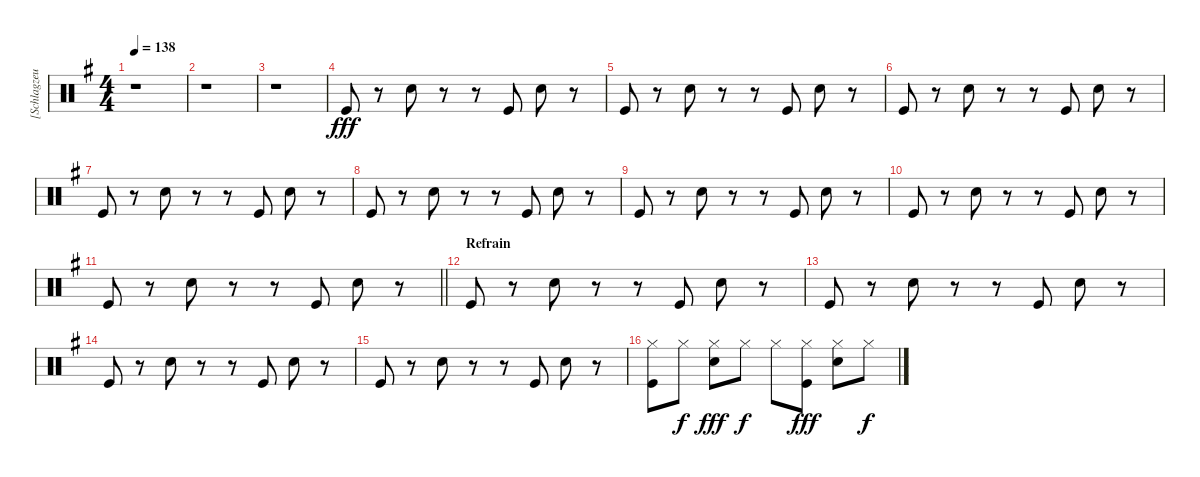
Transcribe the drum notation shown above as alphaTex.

\track ("[Schlagzeug]" "[Schlagzeu") {instrument percussion}
\staff {score}
\articulation defaults
\ts (4 4)
\tempo 138
\clef neutral
\ks eminor
r.1{dy f} |
r.1 |
r.1 |
"Kick (hit)".8{dy fff volume 3} r.8 "Electric Snare (hit)".8 r.8 r.8 "Kick (hit)".8 "Electric Snare (hit)".8 r.8 |
"Kick (hit)".8 r.8 "Electric Snare (hit)".8 r.8 r.8 "Kick (hit)".8 "Electric Snare (hit)".8 r.8 |
"Kick (hit)".8 r.8 "Electric Snare (hit)".8 r.8 r.8 "Kick (hit)".8 "Electric Snare (hit)".8 r.8 |
"Kick (hit)".8 r.8 "Electric Snare (hit)".8 r.8 r.8 "Kick (hit)".8 "Electric Snare (hit)".8 r.8 |
"Kick (hit)".8 r.8 "Electric Snare (hit)".8 r.8 r.8 "Kick (hit)".8 "Electric Snare (hit)".8 r.8 |
"Kick (hit)".8 r.8 "Electric Snare (hit)".8 r.8 r.8 "Kick (hit)".8 "Electric Snare (hit)".8 r.8 |
"Kick (hit)".8 r.8 "Electric Snare (hit)".8 r.8 r.8 "Kick (hit)".8 "Electric Snare (hit)".8 r.8 |
\barLineRight lightlight "Kick (hit)".8
r.8 "Electric Snare (hit)".8 r.8 r.8 "Kick (hit)".8 "Electric Snare (hit)".8 r.8 |
\section ("" "Refrain")
"Kick (hit)".8 r.8 "Electric Snare (hit)".8 r.8 r.8 "Kick (hit)".8 "Electric Snare (hit)".8 r.8 |
"Kick (hit)".8 r.8 "Electric Snare (hit)".8 r.8 r.8 "Kick (hit)".8 "Electric Snare (hit)".8 r.8 |
"Kick (hit)".8 r.8 "Electric Snare (hit)".8 r.8 r.8 "Kick (hit)".8 "Electric Snare (hit)".8 r.8 |
"Kick (hit)".8 r.8 "Electric Snare (hit)".8 r.8 r.8 "Kick (hit)".8 "Electric Snare (hit)".8 r.8 |
("Hi-Hat (closed)" "Kick (hit)").8{volume 16} "Hi-Hat (closed)".8{dy f} ("Hi-Hat (closed)" "Electric Snare (hit)").8{dy fff} "Hi-Hat (closed)".8{dy f} "Hi-Hat (closed)".8 ("Hi-Hat (closed)" "Kick (hit)").8{dy fff} ("Hi-Hat (closed)" "Electric Snare (hit)").8 "Hi-Hat (closed)".8{dy f}
